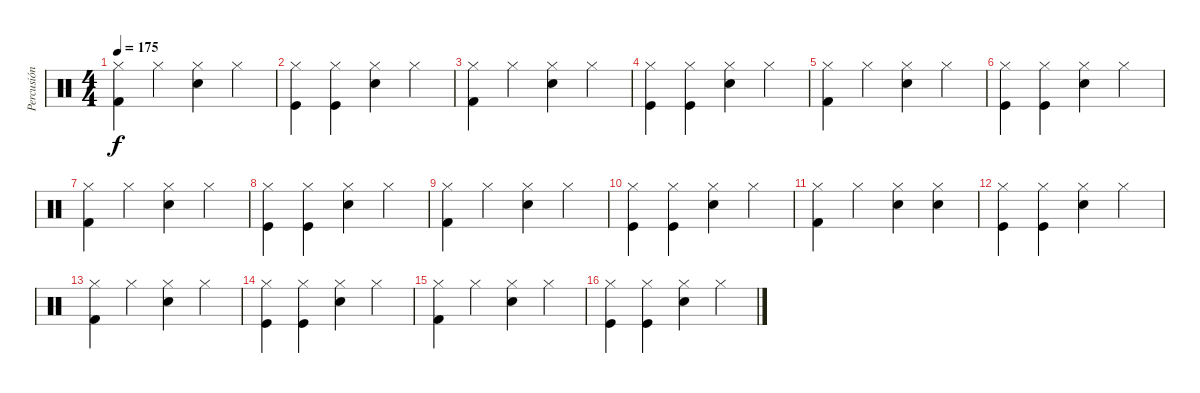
\track ("Percusión" "Percusión") {instrument percussion}
\staff {score}
\articulation defaults
\ts (4 4)
\tempo 175
\clef neutral
\ks c
("Hi-Hat (closed)" "Kick (hit) 2").4{dy f} "Hi-Hat (closed)".4 ("Snare (hit) 2" "Hi-Hat (closed)").4 "Hi-Hat (closed)".4 |
("Kick (hit)" "Hi-Hat (closed)").4 ("Kick (hit)" "Hi-Hat (closed)").4 ("Electric Snare (hit)" "Hi-Hat (closed)").4 "Hi-Hat (closed)".4 |
("Hi-Hat (closed)" "Kick (hit) 2").4 "Hi-Hat (closed)".4 ("Snare (hit) 2" "Hi-Hat (closed)").4 "Hi-Hat (closed)".4 |
("Kick (hit)" "Hi-Hat (closed)").4 ("Kick (hit)" "Hi-Hat (closed)").4 ("Electric Snare (hit)" "Hi-Hat (closed)").4 "Hi-Hat (closed)".4 |
("Hi-Hat (closed)" "Kick (hit) 2").4 "Hi-Hat (closed)".4 ("Snare (hit) 2" "Hi-Hat (closed)").4 "Hi-Hat (closed)".4 |
("Kick (hit)" "Hi-Hat (closed)").4 ("Kick (hit)" "Hi-Hat (closed)").4 ("Electric Snare (hit)" "Hi-Hat (closed)").4 "Hi-Hat (closed)".4 |
("Hi-Hat (closed)" "Kick (hit) 2").4 "Hi-Hat (closed)".4 ("Snare (hit) 2" "Hi-Hat (closed)").4 "Hi-Hat (closed)".4 |
("Kick (hit)" "Hi-Hat (closed)").4 ("Kick (hit)" "Hi-Hat (closed)").4 ("Electric Snare (hit)" "Hi-Hat (closed)").4 "Hi-Hat (closed)".4 |
("Hi-Hat (closed)" "Kick (hit) 2").4 "Hi-Hat (closed)".4 ("Snare (hit) 2" "Hi-Hat (closed)").4 "Hi-Hat (closed)".4 |
("Kick (hit)" "Hi-Hat (closed)").4 ("Kick (hit)" "Hi-Hat (closed)").4 ("Electric Snare (hit)" "Hi-Hat (closed)").4 "Hi-Hat (closed)".4 |
("Hi-Hat (closed)" "Kick (hit) 2").4 "Hi-Hat (closed)".4 ("Snare (hit) 2" "Hi-Hat (closed)").4 ("Hi-Hat (closed)" "Snare (hit) 2").4 |
("Kick (hit)" "Hi-Hat (closed)").4 ("Kick (hit)" "Hi-Hat (closed)").4 ("Electric Snare (hit)" "Hi-Hat (closed)").4 "Hi-Hat (closed)".4 |
("Hi-Hat (closed)" "Kick (hit) 2").4 "Hi-Hat (closed)".4 ("Snare (hit) 2" "Hi-Hat (closed)").4 "Hi-Hat (closed)".4 |
("Kick (hit)" "Hi-Hat (closed)").4 ("Kick (hit)" "Hi-Hat (closed)").4 ("Electric Snare (hit)" "Hi-Hat (closed)").4 "Hi-Hat (closed)".4 |
("Hi-Hat (closed)" "Kick (hit) 2").4 "Hi-Hat (closed)".4 ("Snare (hit) 2" "Hi-Hat (closed)").4 "Hi-Hat (closed)".4 |
("Kick (hit)" "Hi-Hat (closed)").4 ("Kick (hit)" "Hi-Hat (closed)").4 ("Electric Snare (hit)" "Hi-Hat (closed)").4 "Hi-Hat (closed)".4
